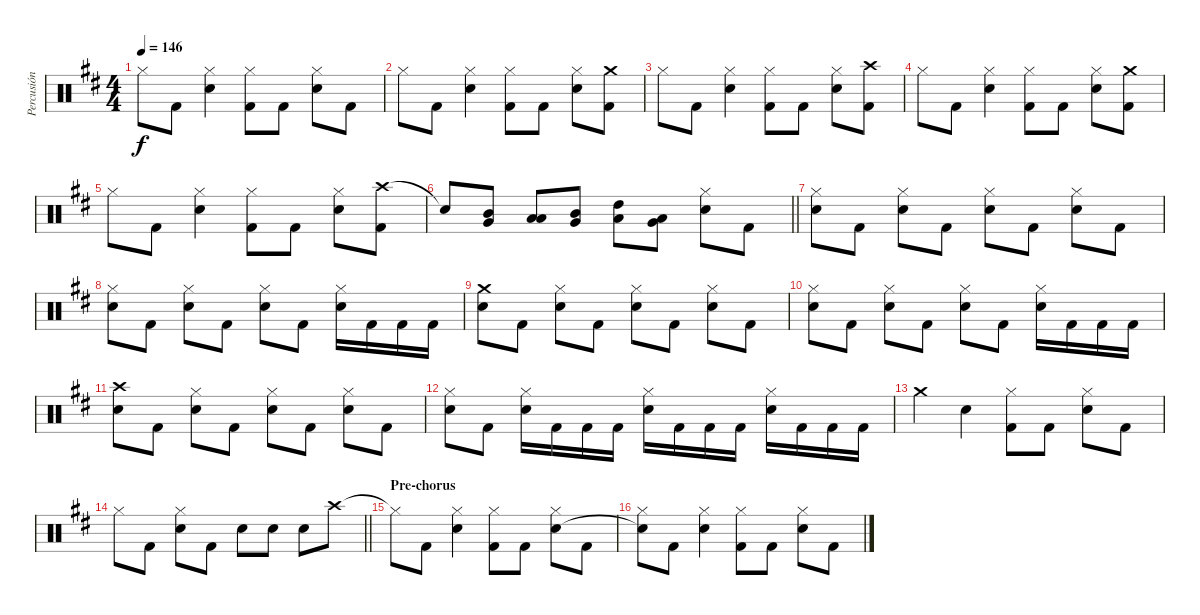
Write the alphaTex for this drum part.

\track ("Percusión" "Percusión") {instrument percussion}
\staff {score}
\articulation defaults
\ts (4 4)
\tempo 146
\clef neutral
\ks d "Hi-Hat (closed)".8{dy f} "Kick (hit) 2".8
("Hi-Hat (closed)" "Snare (hit) 2").4 ("Hi-Hat (closed)" "Kick (hit) 2").8 "Kick (hit) 2".8 ("Hi-Hat (closed)" "Snare (hit) 2").8 "Kick (hit) 2".8 |
"Hi-Hat (closed)".8 "Kick (hit) 2".8 ("Hi-Hat (closed)" "Snare (hit) 2").4 ("Hi-Hat (closed)" "Kick (hit) 2").8 "Kick (hit) 2".8 ("Hi-Hat (closed)" "Snare (hit) 2").8 ("Crash medium (hit)" "Kick (hit) 2").8 |
"Hi-Hat (closed)".8 "Kick (hit) 2".8 ("Hi-Hat (closed)" "Snare (hit) 2").4 ("Hi-Hat (closed)" "Kick (hit) 2").8 "Kick (hit) 2".8 ("Hi-Hat (closed)" "Snare (hit) 2").8 ("Crash high (hit)" "Kick (hit) 2").8 |
"Hi-Hat (closed)".8 "Kick (hit) 2".8 ("Hi-Hat (closed)" "Snare (hit) 2").4 ("Hi-Hat (closed)" "Kick (hit) 2").8 "Kick (hit) 2".8 ("Hi-Hat (closed)" "Snare (hit) 2").8 ("Crash medium (hit)" "Kick (hit) 2").8 |
"Hi-Hat (closed)".8 "Kick (hit) 2".8 ("Hi-Hat (closed)" "Snare (hit) 2").4 ("Hi-Hat (closed)" "Kick (hit) 2").8 "Kick (hit) 2".8 ("Hi-Hat (closed)" "Snare (hit) 2").8 ("Crash high (hit)" "Kick (hit) 2").8 |
\barLineRight lightlight "Snare (hit)"{t}.8
("Mid Tom (hit)" "Very Low Tom (hit)").8 ("Low Floor Tom (hit)" "Low Tom (hit)").8 ("Very Low Tom (hit)" "Mid Tom (hit)").8 ("Low Tom (hit)" "High Tom (hit)").8 ("Very Low Tom (hit)" "Low Floor Tom (hit)").8 ("Hi-Hat (closed)" "Snare (hit) 2").8 "Kick (hit) 2".8 |
("Hi-Hat (closed)" "Snare (hit) 2").8 "Kick (hit) 2".8 ("Hi-Hat (closed)" "Snare (hit) 2").8 "Kick (hit) 2".8 ("Hi-Hat (closed)" "Snare (hit) 2").8 "Kick (hit) 2".8 ("Hi-Hat (closed)" "Snare (hit) 2").8 "Kick (hit) 2".8 |
("Hi-Hat (closed)" "Snare (hit) 2").8 "Kick (hit) 2".8 ("Hi-Hat (closed)" "Snare (hit) 2").8 "Kick (hit) 2".8 ("Hi-Hat (closed)" "Snare (hit) 2").8 "Kick (hit) 2".8 ("Hi-Hat (closed)" "Snare (hit) 2").16 "Kick (hit) 2".16 "Kick (hit) 2".16 "Kick (hit) 2".16 |
("Crash medium (hit)" "Snare (hit) 2").8 "Kick (hit) 2".8 ("Hi-Hat (closed)" "Snare (hit) 2").8 "Kick (hit) 2".8 ("Hi-Hat (closed)" "Snare (hit) 2").8 "Kick (hit) 2".8 ("Hi-Hat (closed)" "Snare (hit) 2").8 "Kick (hit) 2".8 |
("Hi-Hat (closed)" "Snare (hit) 2").8 "Kick (hit) 2".8 ("Hi-Hat (closed)" "Snare (hit) 2").8 "Kick (hit) 2".8 ("Hi-Hat (closed)" "Snare (hit) 2").8 "Kick (hit) 2".8 ("Hi-Hat (closed)" "Snare (hit) 2").16 "Kick (hit) 2".16 "Kick (hit) 2".16 "Kick (hit) 2".16 |
("Crash high (hit)" "Snare (hit) 2").8 "Kick (hit) 2".8 ("Hi-Hat (closed)" "Snare (hit) 2").8 "Kick (hit) 2".8 ("Hi-Hat (closed)" "Snare (hit) 2").8 "Kick (hit) 2".8 ("Hi-Hat (closed)" "Snare (hit) 2").8 "Kick (hit) 2".8 |
("Hi-Hat (closed)" "Snare (hit) 2").8 "Kick (hit) 2".8 ("Hi-Hat (closed)" "Snare (hit) 2").16 "Kick (hit) 2".16 "Kick (hit) 2".16 "Kick (hit) 2".16 ("Hi-Hat (closed)" "Snare (hit) 2").16 "Kick (hit) 2".16 "Kick (hit) 2".16 "Kick (hit) 2".16 ("Hi-Hat (closed)" "Snare (hit) 2").16 "Kick (hit) 2".16 "Kick (hit) 2".16 "Kick (hit) 2".16 |
"Crash medium (hit)".4 "Snare (hit) 2".4 ("Hi-Hat (closed)" "Kick (hit) 2").8 "Kick (hit) 2".8 ("Hi-Hat (closed)" "Snare (hit) 2").8 "Kick (hit) 2".8 |
\barLineRight lightlight "Hi-Hat (closed)".8 "Kick (hit) 2".8
("Hi-Hat (closed)" "Snare (hit) 2").8 "Kick (hit) 2".8 "Snare (hit) 2".8 "Snare (hit) 2".8 "Snare (hit) 2".8 "Crash high (hit)".8 |
\section ("" "Pre-chorus")
"Hi-Hat (closed)"{t}.8 "Kick (hit) 2".8 ("Hi-Hat (closed)" "Snare (hit) 2").4 ("Hi-Hat (closed)" "Kick (hit) 2").8 "Kick (hit) 2".8 ("Hi-Hat (closed)" "Snare (hit) 2").8 "Kick (hit) 2".8 |
("Hi-Hat (closed)" "Snare (hit)"{t}).8 "Kick (hit) 2".8 ("Hi-Hat (closed)" "Snare (hit) 2").4 ("Hi-Hat (closed)" "Kick (hit) 2").8 "Kick (hit) 2".8 ("Hi-Hat (closed)" "Snare (hit) 2").8 "Kick (hit) 2".8
